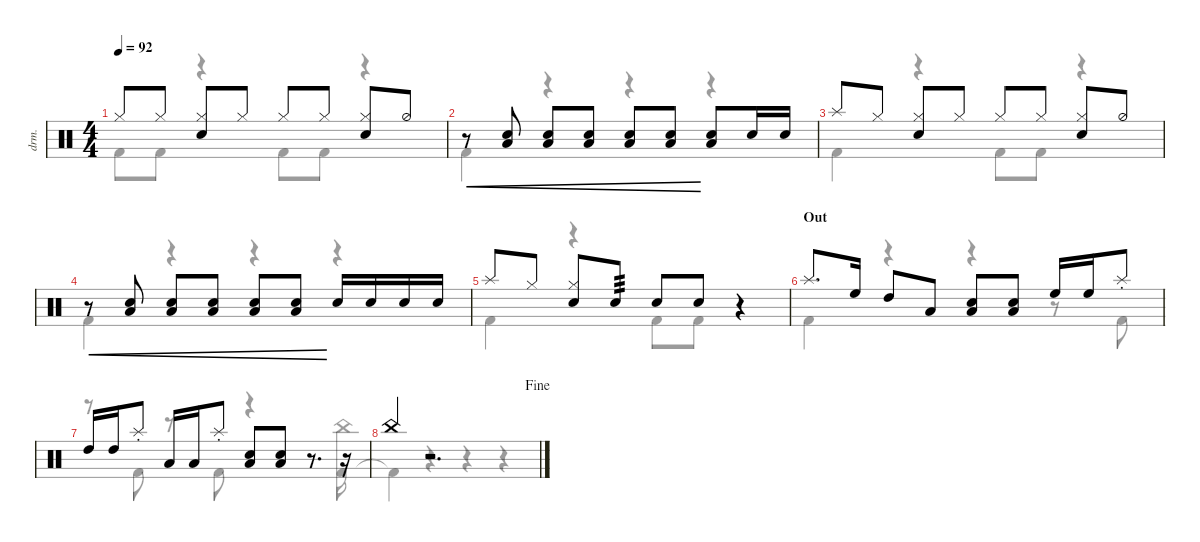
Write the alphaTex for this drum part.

\defaultSystemsLayout 4
\hideDynamics
\bracketExtendMode nobrackets
\track ("Drumkit" "drm.") {defaultSystemsLayout 4 instrument percussion}
\staff {score}
\articulation defaults
\voice
\ts (4 4)
\tempo 92
\clef neutral
\ks c "Hi-Hat (closed)".8{dy mf beam Up} "Hi-Hat (closed)".8{beam Up}
("Hi-Hat (closed)" "Snare (hit) 2").8{beam Up} "Hi-Hat (closed)".8{beam Up} "Hi-Hat (closed)".8{beam Up} "Hi-Hat (closed)".8{beam Up} ("Hi-Hat (closed)" "Snare (hit) 2").8{beam Up} "Hi-Hat (half)".8{beam Up} |
r.8{cre beam Up} ("Low Tom (hit)" "Snare (hit) 2").8{cre beam Up} ("Low Tom (hit)" "Snare (hit) 2").8{cre beam Up} ("Low Tom (hit)" "Snare (hit) 2").8{cre beam Up} ("Low Tom (hit)" "Snare (hit) 2").8{cre beam Up} ("Low Tom (hit)" "Snare (hit) 2").8{cre beam Up} ("Snare (hit) 2" "Low Tom (hit)").8{beam Up} "Snare (hit) 2".16{beam Up} "Snare (hit) 2".16{beam Up} |
"Splash (hit)".8{beam Up} "Hi-Hat (closed)".8{beam Up} ("Hi-Hat (closed)" "Snare (hit) 2").8{beam Up} "Hi-Hat (closed)".8{beam Up} "Hi-Hat (closed)".8{beam Up} "Hi-Hat (closed)".8{beam Up} ("Hi-Hat (closed)" "Snare (hit) 2").8{beam Up} "Hi-Hat (half)".8{beam Up} |
r.8{cre beam Up} ("Low Tom (hit)" "Snare (hit) 2").8{cre beam Up} ("Low Tom (hit)" "Snare (hit) 2").8{cre beam Up} ("Low Tom (hit)" "Snare (hit) 2").8{cre beam Up} ("Low Tom (hit)" "Snare (hit) 2").8{cre beam Up} ("Low Tom (hit)" "Snare (hit) 2").8{cre beam Up} "Snare (hit) 2".16{beam Up} "Snare (hit) 2".16{beam Up} "Snare (hit) 2".16{beam Up} "Snare (hit) 2".16{beam Up} |
"Splash (hit)".8{beam Up} "Hi-Hat (closed)".8{beam Up} ("Hi-Hat (closed)" "Snare (hit) 2").8{beam Up} "Snare (hit) 2".8{tp 3 beam Up} "Snare (hit) 2".8{beam Up} "Snare (hit) 2".8{beam Up} r.4{beam Up} |
\section ("" "Out")
"Splash (hit)".8{d beam Up} "High Floor Tom (hit)".16{beam Up} "High Tom (hit)".8{beam Up} "Low Tom (hit)".8{beam Up} ("Low Tom (hit)" "Snare (hit) 2").8{beam Up} ("Low Tom (hit)" "Snare (hit) 2").8{beam Up} "High Floor Tom (hit)".16{beam Up} "High Floor Tom (hit)".16{beam Up} "Splash (choke)".8{beam Up} |
"High Tom (hit)".16{beam Up} "High Tom (hit)".16{beam Up} "Splash (choke)".8{beam Up} "Low Tom (hit)".16{beam Up} "Low Tom (hit)".16{beam Up} "Splash (choke)".8{beam Up} ("Snare (hit) 2" "Low Tom (hit)").8{beam Up} ("Low Tom (hit)" "Snare (hit) 2").8{beam Up} r.8{d beam Up} r.16{beam Up} |
\jump fine "China (hit)".4{beam Up}
r.2{d beam Up}
\voice
\clef neutral
\ottava regular
\simile none
\ks c "Kick (hit) 2".8{dy mf beam Down} "Kick (hit) 2".8{beam Down}
r.4{beam Down} "Kick (hit) 2".8{beam Down} "Kick (hit) 2".8{beam Down} r.4{beam Down} |
"Kick (hit) 2".4{beam Down} r.4{beam Down} r.4{beam Down} r.4{beam Down} |
"Kick (hit) 2".4{beam Down} r.4{beam Down} "Kick (hit) 2".8{beam Down} "Kick (hit) 2".8{beam Down} r.4{beam Down} |
"Kick (hit) 2".4{beam Down} r.4{beam Down} r.4{beam Down} r.4{beam Down} |
"Kick (hit) 2".4{beam Down} r.4{beam Down} "Kick (hit) 2".8{beam Down} "Kick (hit) 2".8{beam Down} r.4{beam Down} |
"Kick (hit) 2".4{beam Down} r.4{beam Down} r.4{beam Down} r.8{beam Down} "Kick (hit) 2".8{beam Down} |
r.8{beam Down} "Kick (hit) 2".8{beam Down} r.8{beam Down} "Kick (hit) 2".8{beam Down} r.4{beam Down} r.8{d beam Down} ("Kick (hit) 2" "China (hit)").16{beam Down} |
"Kick (hit) 2"{t}.4{beam Down} r.4{beam Down} r.4{beam Down} r.4{beam Down}
